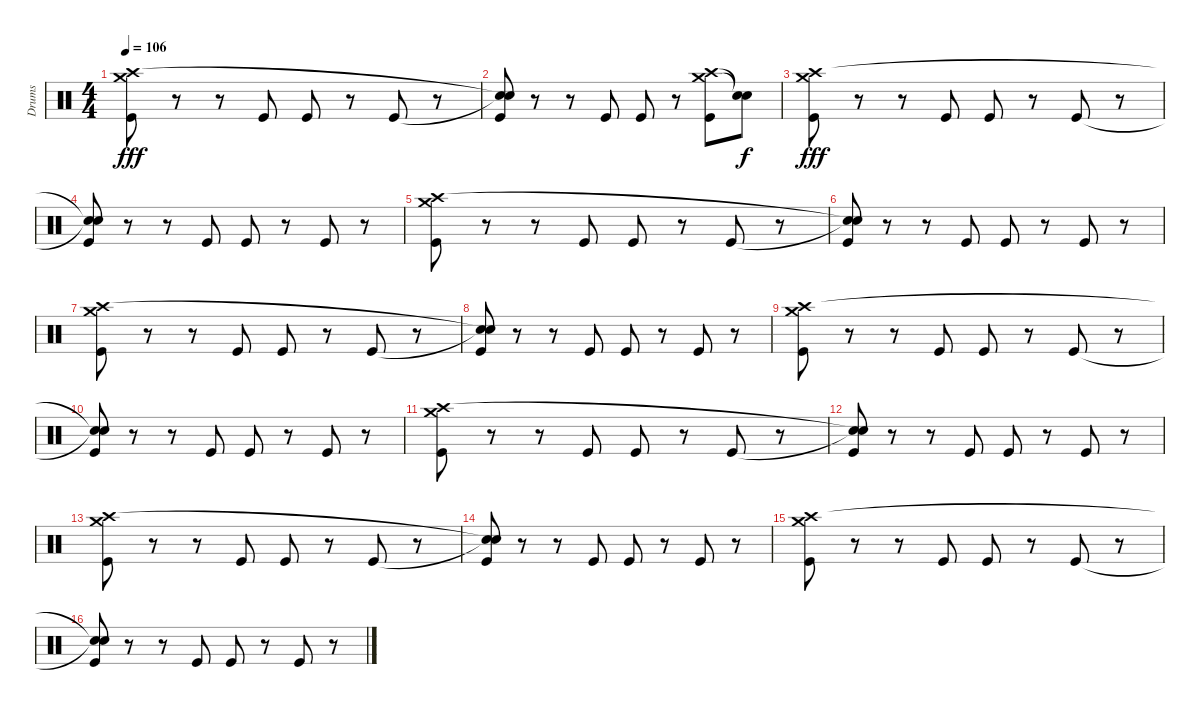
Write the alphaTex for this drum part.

\track ("Drums" "Drums") {instrument percussion}
\staff {score}
\articulation defaults
\ts (4 4)
\tempo 106
\clef neutral
\ks c
("Crash medium (hit)" "Crash high (hit)" "Kick (hit)").8{dy fff} r.8 r.8 "Kick (hit)".8 "Kick (hit)".8 r.8 "Kick (hit)".8 r.8 |
("Snare (hit)"{t} "Snare (hit)"{t} "Kick (hit)").8 r.8 r.8 "Kick (hit)".8 "Kick (hit)".8 r.8 ("Crash medium (hit)" "Crash high (hit)" "Kick (hit)").8 ("Snare (hit)"{t} "Snare (hit)"{t}).8{dy f} |
("Crash medium (hit)" "Crash high (hit)" "Kick (hit)").8{dy fff} r.8 r.8 "Kick (hit)".8 "Kick (hit)".8 r.8 "Kick (hit)".8 r.8 |
("Snare (hit)"{t} "Snare (hit)"{t} "Kick (hit)").8 r.8 r.8 "Kick (hit)".8 "Kick (hit)".8 r.8 "Kick (hit)".8 r.8 |
("Crash medium (hit)" "Crash high (hit)" "Kick (hit)").8 r.8 r.8 "Kick (hit)".8 "Kick (hit)".8 r.8 "Kick (hit)".8 r.8 |
("Snare (hit)"{t} "Snare (hit)"{t} "Kick (hit)").8 r.8 r.8 "Kick (hit)".8 "Kick (hit)".8 r.8 "Kick (hit)".8 r.8 |
("Crash medium (hit)" "Crash high (hit)" "Kick (hit)").8 r.8 r.8 "Kick (hit)".8 "Kick (hit)".8 r.8 "Kick (hit)".8 r.8 |
("Snare (hit)"{t} "Snare (hit)"{t} "Kick (hit)").8 r.8 r.8 "Kick (hit)".8 "Kick (hit)".8 r.8 "Kick (hit)".8 r.8 |
("Crash medium (hit)" "Crash high (hit)" "Kick (hit)").8 r.8 r.8 "Kick (hit)".8 "Kick (hit)".8 r.8 "Kick (hit)".8 r.8 |
("Snare (hit)"{t} "Snare (hit)"{t} "Kick (hit)").8 r.8 r.8 "Kick (hit)".8 "Kick (hit)".8 r.8 "Kick (hit)".8 r.8 |
("Crash medium (hit)" "Crash high (hit)" "Kick (hit)").8 r.8 r.8 "Kick (hit)".8 "Kick (hit)".8 r.8 "Kick (hit)".8 r.8 |
("Snare (hit)"{t} "Snare (hit)"{t} "Kick (hit)").8{volume 7} r.8 r.8 "Kick (hit)".8 "Kick (hit)".8 r.8 "Kick (hit)".8 r.8 |
("Crash medium (hit)" "Crash high (hit)" "Kick (hit)").8 r.8 r.8 "Kick (hit)".8 "Kick (hit)".8 r.8 "Kick (hit)".8 r.8 |
("Snare (hit)"{t} "Snare (hit)"{t} "Kick (hit)").8{volume 0} r.8 r.8 "Kick (hit)".8 "Kick (hit)".8 r.8 "Kick (hit)".8 r.8 |
("Crash medium (hit)" "Crash high (hit)" "Kick (hit)").8 r.8 r.8 "Kick (hit)".8 "Kick (hit)".8 r.8 "Kick (hit)".8 r.8 |
("Snare (hit)"{t} "Snare (hit)"{t} "Kick (hit)").8 r.8 r.8 "Kick (hit)".8 "Kick (hit)".8 r.8 "Kick (hit)".8 r.8
